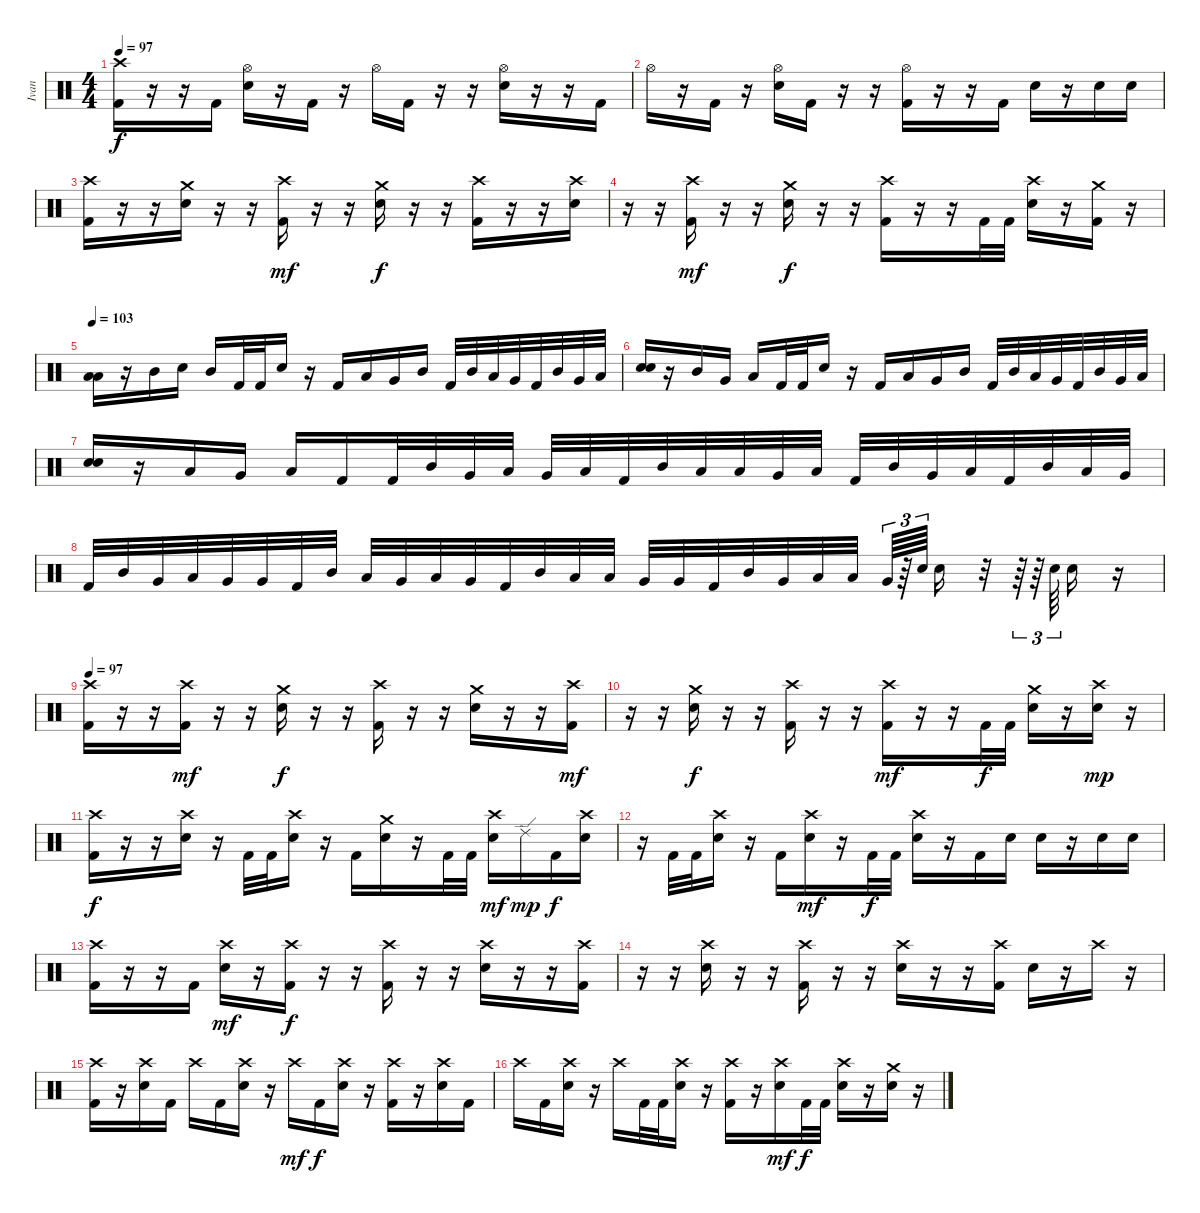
\track ("Ivan" "Ivan") {instrument percussion}
\staff {score}
\articulation defaults
\ts (4 4)
\tempo 97
\clef neutral
\ks c
("Crash high (hit)" "Kick (hit) 2").16{dy f} r.16 r.16 "Kick (hit) 2".16 ("Hi-Hat (open)" "Snare (hit) 2").16 r.16 "Kick (hit) 2".16 r.16 "Hi-Hat (open)".16 "Kick (hit) 2".16 r.16 r.16 ("Hi-Hat (open)" "Snare (hit) 2").16 r.16 r.16 "Kick (hit) 2".16 |
"Hi-Hat (open)".16 r.16 "Kick (hit) 2".16 r.16 ("Hi-Hat (open)" "Snare (hit) 2").16 "Kick (hit) 2".16 r.16 r.16 ("Hi-Hat (open)" "Kick (hit) 2").16 r.16 r.16 "Kick (hit) 2".16 "Snare (hit) 2".16 r.16 "Snare (hit) 2".16 "Snare (hit) 2".16 |
("Crash high (hit)" "Kick (hit) 2").16 r.16 r.16 ("Crash medium (hit)" "Snare (hit) 2").16 r.16 r.16 ("Crash high (hit)" "Kick (hit) 2").16{dy mf} r.16 r.16 ("Crash medium (hit)" "Snare (hit) 2").16{dy f} r.16 r.16 ("Crash high (hit)" "Kick (hit) 2").16 r.16 r.16 ("Crash high (hit)" "Snare (hit) 2").16 |
r.16 r.16 ("Crash high (hit)" "Kick (hit) 2").16{dy mf} r.16 r.16 ("Crash medium (hit)" "Snare (hit) 2").16{dy f} r.16 r.16 ("Crash high (hit)" "Kick (hit) 2").16 r.16 r.16 "Kick (hit) 2".32 "Kick (hit) 2".32 ("Crash high (hit)" "Snare (hit) 2").16 r.16 ("Crash medium (hit)" "Kick (hit) 2").16 r.16 |
\tempo 103
("Low Tom (hit)" "Low Tom (hit)").16 r.16 "Mid Tom (hit)".16 "Snare (hit) 2".16 "Mid Tom (hit)".16 "Kick (hit) 2".32 "Kick (hit) 2".32 "Snare (hit) 2".16 r.16 "Kick (hit) 2".16 "Low Tom (hit)".16 "Very Low Tom (hit)".16 "Mid Tom (hit)".16 "Kick (hit) 2".32 "Mid Tom (hit)".32 "Low Tom (hit)".32 "Very Low Tom (hit)".32 "Kick (hit) 2".32 "Mid Tom (hit)".32 "Very Low Tom (hit)".32 "Low Tom (hit)".32 |
("Snare (hit) 2" "Snare (hit) 2").16 r.16 "Mid Tom (hit)".16 "Very Low Tom (hit)".16 "Low Tom (hit)".16 "Kick (hit) 2".32 "Kick (hit) 2".32 "Snare (hit) 2".16 r.16 "Kick (hit) 2".16 "Low Tom (hit)".16 "Very Low Tom (hit)".16 "Mid Tom (hit)".16 "Kick (hit) 2".32 "Mid Tom (hit)".32 "Low Tom (hit)".32 "Very Low Tom (hit)".32 "Kick (hit) 2".32 "Mid Tom (hit)".32 "Very Low Tom (hit)".32 "Low Tom (hit)".32 |
("Snare (hit) 2" "Snare (hit) 2").16 r.16 "Low Tom (hit)".16 "Very Low Tom (hit)".16 "Low Tom (hit)".16 "Kick (hit) 2".16 "Kick (hit) 2".32 "Mid Tom (hit)".32 "Very Low Tom (hit)".32 "Low Tom (hit)".32 "Very Low Tom (hit)".32 "Low Tom (hit)".32 "Kick (hit) 2".32 "Mid Tom (hit)".32 "Low Tom (hit)".32 "Low Tom (hit)".32 "Very Low Tom (hit)".32 "Low Tom (hit)".32 "Kick (hit) 2".32 "Mid Tom (hit)".32 "Very Low Tom (hit)".32 "Low Tom (hit)".32 "Kick (hit) 2".32 "Mid Tom (hit)".32 "Low Tom (hit)".32 "Very Low Tom (hit)".32 |
"Kick (hit) 2".32 "Mid Tom (hit)".32 "Very Low Tom (hit)".32 "Low Tom (hit)".32 "Very Low Tom (hit)".32 "Very Low Tom (hit)".32 "Kick (hit) 2".32 "Mid Tom (hit)".32 "Low Tom (hit)".32 "Very Low Tom (hit)".32 "Low Tom (hit)".32 "Very Low Tom (hit)".32 "Kick (hit) 2".32 "Mid Tom (hit)".32 "Low Floor Tom (hit)".32 "Low Tom (hit)".32 "Very Low Tom (hit)".32 "Very Low Tom (hit)".32 "Kick (hit) 2".32 "Mid Tom (hit)".32 "Very Low Tom (hit)".32 "Low Floor Tom (hit)".32 "Low Tom (hit)".32 "Very Low Tom (hit)".64{tu (3 2)} r.64{tu (3 2)} "Snare (hit) 2".64{tu (3 2)} "Snare (hit) 2".16 r.32 r.64{tu (3 2)} r.64{tu (3 2)} "Snare (hit) 2".64{tu (3 2)} "Snare (hit) 2".16 r.16 |
\tempo 97
("Crash high (hit)" "Kick (hit) 2").16 r.16 r.16 ("Crash high (hit)" "Kick (hit) 2").16{dy mf} r.16 r.16 ("Crash medium (hit)" "Snare (hit) 2").16{dy f} r.16 r.16 ("Crash high (hit)" "Kick (hit) 2").16 r.16 r.16 ("Crash medium (hit)" "Snare (hit) 2").16 r.16 r.16 ("Crash high (hit)" "Kick (hit) 2").16{dy mf} |
r.16 r.16 ("Crash medium (hit)" "Snare (hit) 2").16{dy f} r.16 r.16 ("Crash high (hit)" "Kick (hit) 2").16 r.16 r.16 ("Crash high (hit)" "Kick (hit) 2").16{dy mf} r.16 r.16 "Kick (hit) 2".32{dy f} "Kick (hit) 2".32 ("Crash medium (hit)" "Snare (hit) 2").16 r.16 ("Crash high (hit)" "Snare (hit) 2").16{dy mp} r.16 |
("Crash high (hit)" "Kick (hit) 2").16{dy f} r.16 r.16 ("Crash high (hit)" "Snare (hit) 2").16 r.16 "Kick (hit) 2".32 "Kick (hit) 2".32 ("Crash high (hit)" "Snare (hit) 2").16 r.16 "Kick (hit) 2".16 ("Crash medium (hit)" "Snare (hit) 2").16 r.16 "Kick (hit) 2".32 "Kick (hit) 2".32 ("Crash high (hit)" "Snare (hit) 2").16{dy mf} "Ride (edge) 2".16{dy mp} "Kick (hit) 2".16{dy f} ("Crash high (hit)" "Snare (hit) 2").16 |
r.16 "Kick (hit) 2".32 "Kick (hit) 2".32 ("Crash high (hit)" "Snare (hit) 2").16 r.16 "Kick (hit) 2".16 ("Crash high (hit)" "Snare (hit) 2").16{dy mf} r.16 "Kick (hit) 2".32{dy f} "Kick (hit) 2".32 ("Crash high (hit)" "Snare (hit) 2").16 r.16 "Kick (hit) 2".16 "Snare (hit) 2".16 "Snare (hit) 2".16 r.16 "Snare (hit) 2".16 "Snare (hit) 2".16 |
("Crash high (hit)" "Kick (hit) 2").16 r.16 r.16 "Kick (hit) 2".16 ("Crash high (hit)" "Snare (hit) 2").16{dy mf} r.16 ("Crash high (hit)" "Kick (hit) 2").16{dy f} r.16 r.16 ("Crash high (hit)" "Kick (hit) 2").16 r.16 r.16 ("Crash high (hit)" "Snare (hit) 2").16 r.16 r.16 ("Crash high (hit)" "Kick (hit) 2").16 |
r.16 r.16 ("Crash high (hit)" "Snare (hit) 2").16 r.16 r.16 ("Crash high (hit)" "Kick (hit) 2").16 r.16 r.16 ("Crash high (hit)" "Snare (hit) 2").16 r.16 r.16 ("Crash high (hit)" "Kick (hit) 2").16 "Snare (hit) 2".16 r.16 "Crash high (hit)".16 r.16 |
("Crash high (hit)" "Kick (hit) 2").16 r.16 ("Crash high (hit)" "Snare (hit) 2").16 "Kick (hit) 2".16 "Crash high (hit)".16 "Kick (hit) 2".16 ("Crash high (hit)" "Snare (hit) 2").16 r.16 "Crash high (hit)".16{dy mf} "Kick (hit) 2".16{dy f} ("Crash high (hit)" "Snare (hit) 2").16 r.16 ("Crash high (hit)" "Kick (hit) 2").16 r.16 ("Crash high (hit)" "Snare (hit) 2").16 "Kick (hit) 2".16 |
"Crash high (hit)".16 "Kick (hit) 2".16 ("Crash high (hit)" "Snare (hit) 2").16 r.16 "Crash high (hit)".16 "Kick (hit) 2".32 "Kick (hit) 2".32 ("Crash high (hit)" "Snare (hit) 2").16 r.16 ("Crash high (hit)" "Kick (hit) 2").16 r.16 ("Crash high (hit)" "Snare (hit) 2").16{dy mf} "Kick (hit) 2".32{dy f} "Kick (hit) 2".32 ("Crash high (hit)" "Snare (hit) 2").16 r.16 ("Crash medium (hit)" "Snare (hit) 2").16 r.16
